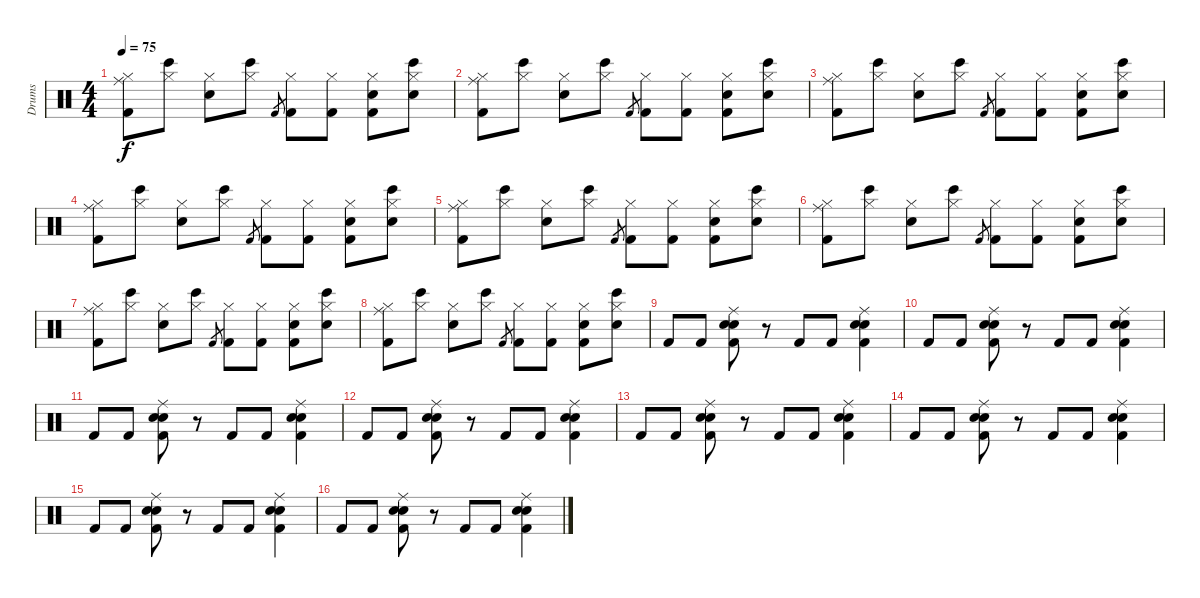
\track ("Drums" "Drums") {instrument percussion}
\staff {score}
\articulation defaults
\ts (4 4)
\tempo 75
\clef neutral
\ks c
("Ride (middle)" "Hi-Hat (closed)" "Kick (hit) 2").8{dy f} ("Bongo High (hit)" "Hi-Hat (closed)").8 ("Hi-Hat (closed)" "Electric Snare (hit)").8 ("Bongo High (hit)" "Hi-Hat (closed)").8 "Kick (hit) 2".8{gr} ("Hi-Hat (closed)" "Kick (hit) 2").8 ("Hi-Hat (closed)" "Kick (hit) 2").8 ("Hi-Hat (closed)" "Electric Snare (hit)" "Kick (hit) 2").8 ("Bongo High (hit)" "Hi-Hat (closed)" "Electric Snare (hit)").8 |
("Ride (middle)" "Hi-Hat (closed)" "Kick (hit) 2").8 ("Bongo High (hit)" "Hi-Hat (closed)").8 ("Hi-Hat (closed)" "Electric Snare (hit)").8 ("Bongo High (hit)" "Hi-Hat (closed)").8 "Kick (hit) 2".8{gr} ("Hi-Hat (closed)" "Kick (hit) 2").8 ("Hi-Hat (closed)" "Kick (hit) 2").8 ("Hi-Hat (closed)" "Electric Snare (hit)" "Kick (hit) 2").8 ("Bongo High (hit)" "Hi-Hat (closed)" "Electric Snare (hit)").8 |
("Ride (middle)" "Hi-Hat (closed)" "Kick (hit) 2").8 ("Bongo High (hit)" "Hi-Hat (closed)").8 ("Hi-Hat (closed)" "Electric Snare (hit)").8 ("Bongo High (hit)" "Hi-Hat (closed)").8 "Kick (hit) 2".8{gr} ("Hi-Hat (closed)" "Kick (hit) 2").8 ("Hi-Hat (closed)" "Kick (hit) 2").8 ("Hi-Hat (closed)" "Electric Snare (hit)" "Kick (hit) 2").8 ("Bongo High (hit)" "Hi-Hat (closed)" "Electric Snare (hit)").8 |
("Ride (middle)" "Hi-Hat (closed)" "Kick (hit) 2").8 ("Bongo High (hit)" "Hi-Hat (closed)").8 ("Hi-Hat (closed)" "Electric Snare (hit)").8 ("Bongo High (hit)" "Hi-Hat (closed)").8 "Kick (hit) 2".8{gr} ("Hi-Hat (closed)" "Kick (hit) 2").8 ("Hi-Hat (closed)" "Kick (hit) 2").8 ("Hi-Hat (closed)" "Electric Snare (hit)" "Kick (hit) 2").8 ("Bongo High (hit)" "Hi-Hat (closed)" "Electric Snare (hit)").8 |
("Ride (middle)" "Hi-Hat (closed)" "Kick (hit) 2").8 ("Bongo High (hit)" "Hi-Hat (closed)").8 ("Hi-Hat (closed)" "Electric Snare (hit)").8 ("Bongo High (hit)" "Hi-Hat (closed)").8 "Kick (hit) 2".8{gr} ("Hi-Hat (closed)" "Kick (hit) 2").8 ("Hi-Hat (closed)" "Kick (hit) 2").8 ("Hi-Hat (closed)" "Electric Snare (hit)" "Kick (hit) 2").8 ("Bongo High (hit)" "Hi-Hat (closed)" "Electric Snare (hit)").8 |
("Ride (middle)" "Hi-Hat (closed)" "Kick (hit) 2").8 ("Bongo High (hit)" "Hi-Hat (closed)").8 ("Hi-Hat (closed)" "Electric Snare (hit)").8 ("Bongo High (hit)" "Hi-Hat (closed)").8 "Kick (hit) 2".8{gr} ("Hi-Hat (closed)" "Kick (hit) 2").8 ("Hi-Hat (closed)" "Kick (hit) 2").8 ("Hi-Hat (closed)" "Electric Snare (hit)" "Kick (hit) 2").8 ("Bongo High (hit)" "Hi-Hat (closed)" "Electric Snare (hit)").8 |
("Ride (middle)" "Hi-Hat (closed)" "Kick (hit) 2").8 ("Bongo High (hit)" "Hi-Hat (closed)").8 ("Hi-Hat (closed)" "Electric Snare (hit)").8 ("Bongo High (hit)" "Hi-Hat (closed)").8 "Kick (hit) 2".8{gr} ("Hi-Hat (closed)" "Kick (hit) 2").8 ("Hi-Hat (closed)" "Kick (hit) 2").8 ("Hi-Hat (closed)" "Electric Snare (hit)" "Kick (hit) 2").8 ("Bongo High (hit)" "Hi-Hat (closed)" "Electric Snare (hit)").8 |
("Ride (middle)" "Hi-Hat (closed)" "Kick (hit) 2").8 ("Bongo High (hit)" "Hi-Hat (closed)").8 ("Hi-Hat (closed)" "Electric Snare (hit)").8 ("Bongo High (hit)" "Hi-Hat (closed)").8 "Kick (hit) 2".8{gr} ("Hi-Hat (closed)" "Kick (hit) 2").8 ("Hi-Hat (closed)" "Kick (hit) 2").8 ("Hi-Hat (closed)" "Electric Snare (hit)" "Kick (hit) 2").8 ("Bongo High (hit)" "Hi-Hat (closed)" "Electric Snare (hit)").8 |
"Kick (hit) 2".8 "Kick (hit) 2".8 ("Ride (middle)" "Snare (hit) 2" "Electric Snare (hit)" "Kick (hit) 2").8 r.8 "Kick (hit) 2".8 "Kick (hit) 2".8 ("Ride (middle)" "Snare (hit) 2" "Electric Snare (hit)" "Kick (hit) 2").4 |
"Kick (hit) 2".8 "Kick (hit) 2".8 ("Ride (middle)" "Snare (hit) 2" "Electric Snare (hit)" "Kick (hit) 2").8 r.8 "Kick (hit) 2".8 "Kick (hit) 2".8 ("Ride (middle)" "Snare (hit) 2" "Electric Snare (hit)" "Kick (hit) 2").4 |
"Kick (hit) 2".8 "Kick (hit) 2".8 ("Ride (middle)" "Snare (hit) 2" "Electric Snare (hit)" "Kick (hit) 2").8 r.8 "Kick (hit) 2".8 "Kick (hit) 2".8 ("Ride (middle)" "Snare (hit) 2" "Electric Snare (hit)" "Kick (hit) 2").4 |
"Kick (hit) 2".8 "Kick (hit) 2".8 ("Ride (middle)" "Snare (hit) 2" "Electric Snare (hit)" "Kick (hit) 2").8 r.8 "Kick (hit) 2".8 "Kick (hit) 2".8 ("Ride (middle)" "Snare (hit) 2" "Electric Snare (hit)" "Kick (hit) 2").4 |
"Kick (hit) 2".8 "Kick (hit) 2".8 ("Ride (middle)" "Snare (hit) 2" "Electric Snare (hit)" "Kick (hit) 2").8 r.8 "Kick (hit) 2".8 "Kick (hit) 2".8 ("Ride (middle)" "Snare (hit) 2" "Electric Snare (hit)" "Kick (hit) 2").4 |
"Kick (hit) 2".8 "Kick (hit) 2".8 ("Ride (middle)" "Snare (hit) 2" "Electric Snare (hit)" "Kick (hit) 2").8 r.8 "Kick (hit) 2".8 "Kick (hit) 2".8 ("Ride (middle)" "Snare (hit) 2" "Electric Snare (hit)" "Kick (hit) 2").4 |
"Kick (hit) 2".8 "Kick (hit) 2".8 ("Ride (middle)" "Snare (hit) 2" "Electric Snare (hit)" "Kick (hit) 2").8 r.8 "Kick (hit) 2".8 "Kick (hit) 2".8 ("Ride (middle)" "Snare (hit) 2" "Electric Snare (hit)" "Kick (hit) 2").4 |
"Kick (hit) 2".8 "Kick (hit) 2".8 ("Ride (middle)" "Snare (hit) 2" "Electric Snare (hit)" "Kick (hit) 2").8 r.8 "Kick (hit) 2".8 "Kick (hit) 2".8 ("Ride (middle)" "Snare (hit) 2" "Electric Snare (hit)" "Kick (hit) 2").4
